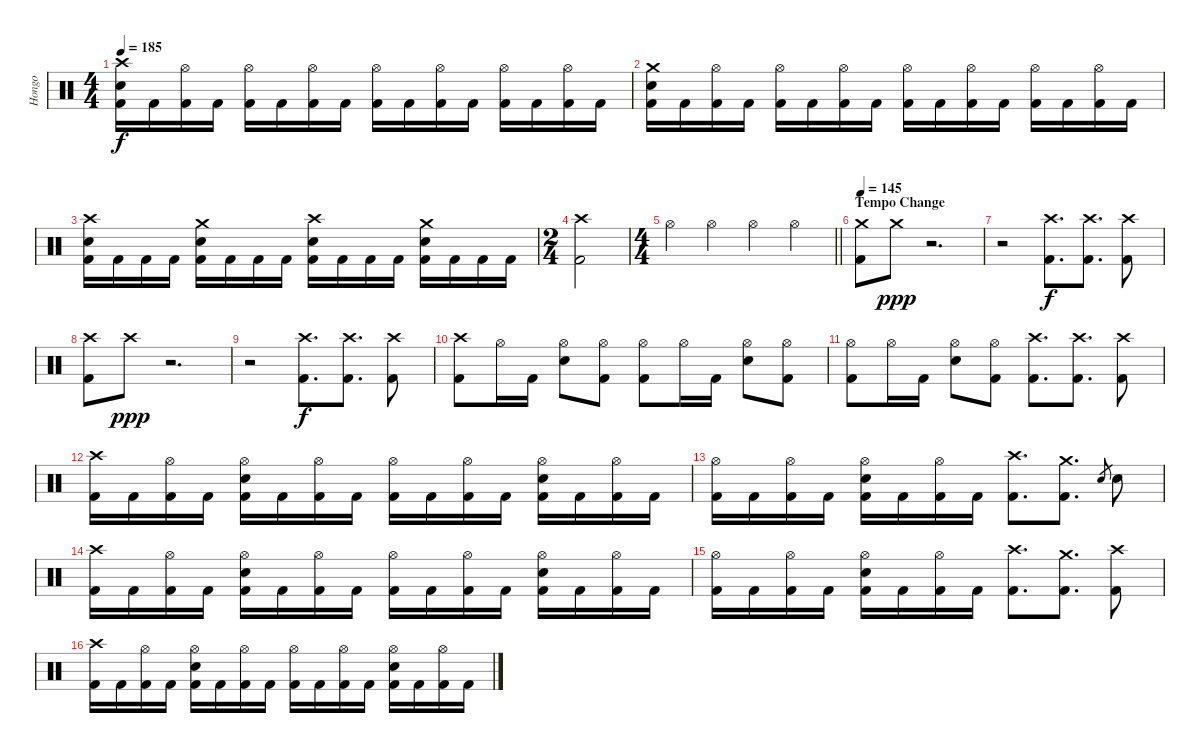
\track ("Hongo" "Hongo") {instrument percussion}
\staff {score}
\articulation defaults
\ts (4 4)
\tempo 185
\clef neutral
\ks c
("Crash high (hit)" "Electric Snare (hit)" "Kick (hit) 2").16{dy f} "Kick (hit) 2".16 ("Hi-Hat (open)" "Kick (hit) 2").16 "Kick (hit) 2".16 ("Hi-Hat (open)" "Kick (hit) 2").16 "Kick (hit) 2".16 ("Hi-Hat (open)" "Kick (hit) 2").16 "Kick (hit) 2".16 ("Hi-Hat (open)" "Kick (hit) 2").16 "Kick (hit) 2".16 ("Hi-Hat (open)" "Kick (hit) 2").16 "Kick (hit) 2".16 ("Hi-Hat (open)" "Kick (hit) 2").16 "Kick (hit) 2".16 ("Hi-Hat (open)" "Kick (hit) 2").16 "Kick (hit) 2".16 |
("Crash medium (hit)" "Electric Snare (hit)" "Kick (hit) 2").16 "Kick (hit) 2".16 ("Hi-Hat (open)" "Kick (hit) 2").16 "Kick (hit) 2".16 ("Hi-Hat (open)" "Kick (hit) 2").16 "Kick (hit) 2".16 ("Hi-Hat (open)" "Kick (hit) 2").16 "Kick (hit) 2".16 ("Hi-Hat (open)" "Kick (hit) 2").16 "Kick (hit) 2".16 ("Hi-Hat (open)" "Kick (hit) 2").16 "Kick (hit) 2".16 ("Hi-Hat (open)" "Kick (hit) 2").16 "Kick (hit) 2".16 ("Hi-Hat (open)" "Kick (hit) 2").16 "Kick (hit) 2".16 |
("Crash high (hit)" "Electric Snare (hit)" "Kick (hit) 2").16 "Kick (hit) 2".16 "Kick (hit) 2".16 "Kick (hit) 2".16 ("Crash medium (hit)" "Electric Snare (hit)" "Kick (hit) 2").16 "Kick (hit) 2".16 "Kick (hit) 2".16 "Kick (hit) 2".16 ("Crash high (hit)" "Electric Snare (hit)" "Kick (hit) 2").16 "Kick (hit) 2".16 "Kick (hit) 2".16 "Kick (hit) 2".16 ("Crash medium (hit)" "Electric Snare (hit)" "Kick (hit) 2").16 "Kick (hit) 2".16 "Kick (hit) 2".16 "Kick (hit) 2".16 |
\ts (2 4)
("Crash high (hit)" "Kick (hit) 2").2 |
\ts (4 4)
\barLineRight lightlight "Hi-Hat (open)".4 "Hi-Hat (open)".4 "Hi-Hat (open)".4 "Hi-Hat (open)".4
|
\section ("" "Tempo Change")
\tempo 145
("Crash medium (hit)" "Kick (hit) 2").8 "Crash medium (hit)".8{dy ppp} r.2{d} |
r.2 ("Crash high (hit)" "Kick (hit) 2").8{d dy f} ("Crash high (hit)" "Kick (hit) 2").8{d} ("Crash high (hit)" "Kick (hit) 2").8 |
("Crash high (hit)" "Kick (hit) 2").8 "Crash high (hit)".8{dy ppp} r.2{d} |
r.2 ("Crash high (hit)" "Kick (hit) 2").8{d dy f} ("Crash high (hit)" "Kick (hit) 2").8{d} ("Crash high (hit)" "Kick (hit) 2").8 |
("Crash high (hit)" "Kick (hit) 2").8 "Hi-Hat (open)".16 "Kick (hit) 2".16 ("Hi-Hat (open)" "Electric Snare (hit)").8 ("Hi-Hat (open)" "Kick (hit) 2").8 ("Hi-Hat (open)" "Kick (hit) 2").8 "Hi-Hat (open)".16 "Kick (hit) 2".16 ("Hi-Hat (open)" "Electric Snare (hit)").8 ("Hi-Hat (open)" "Kick (hit) 2").8 |
("Hi-Hat (open)" "Kick (hit) 2").8 "Hi-Hat (open)".16 "Kick (hit) 2".16 ("Hi-Hat (open)" "Electric Snare (hit)").8 ("Hi-Hat (open)" "Kick (hit) 2").8 ("Crash high (hit)" "Kick (hit) 2").8{d} ("Crash high (hit)" "Kick (hit) 2").8{d} ("Crash high (hit)" "Kick (hit) 2").8 |
("Crash high (hit)" "Kick (hit) 2").16 "Kick (hit) 2".16 ("Hi-Hat (open)" "Kick (hit) 2").16 "Kick (hit) 2".16 ("Hi-Hat (open)" "Electric Snare (hit)" "Kick (hit) 2").16 "Kick (hit) 2".16 ("Hi-Hat (open)" "Kick (hit) 2").16 "Kick (hit) 2".16 ("Hi-Hat (open)" "Kick (hit) 2").16 "Kick (hit) 2".16 ("Hi-Hat (open)" "Kick (hit) 2").16 "Kick (hit) 2".16 ("Hi-Hat (open)" "Electric Snare (hit)" "Kick (hit) 2").16 "Kick (hit) 2".16 ("Hi-Hat (open)" "Kick (hit) 2").16 "Kick (hit) 2".16 |
("Hi-Hat (open)" "Kick (hit) 2").16 "Kick (hit) 2".16 ("Hi-Hat (open)" "Kick (hit) 2").16 "Kick (hit) 2".16 ("Hi-Hat (open)" "Electric Snare (hit)" "Kick (hit) 2").16 "Kick (hit) 2".16 ("Hi-Hat (open)" "Kick (hit) 2").16 "Kick (hit) 2".16 ("Crash high (hit)" "Kick (hit) 2").8{d} ("Crash medium (hit)" "Kick (hit) 2").8{d} "Electric Snare (hit)".8{gr} "Electric Snare (hit)".8 |
("Crash high (hit)" "Kick (hit) 2").16 "Kick (hit) 2".16 ("Hi-Hat (open)" "Kick (hit) 2").16 "Kick (hit) 2".16 ("Hi-Hat (open)" "Electric Snare (hit)" "Kick (hit) 2").16 "Kick (hit) 2".16 ("Hi-Hat (open)" "Kick (hit) 2").16 "Kick (hit) 2".16 ("Hi-Hat (open)" "Kick (hit) 2").16 "Kick (hit) 2".16 ("Hi-Hat (open)" "Kick (hit) 2").16 "Kick (hit) 2".16 ("Hi-Hat (open)" "Electric Snare (hit)" "Kick (hit) 2").16 "Kick (hit) 2".16 ("Hi-Hat (open)" "Kick (hit) 2").16 "Kick (hit) 2".16 |
("Hi-Hat (open)" "Kick (hit) 2").16 "Kick (hit) 2".16 ("Hi-Hat (open)" "Kick (hit) 2").16 "Kick (hit) 2".16 ("Hi-Hat (open)" "Electric Snare (hit)" "Kick (hit) 2").16 "Kick (hit) 2".16 ("Hi-Hat (open)" "Kick (hit) 2").16 "Kick (hit) 2".16 ("Crash high (hit)" "Kick (hit) 2").8{d} ("Crash medium (hit)" "Kick (hit) 2").8{d} ("Crash high (hit)" "Kick (hit) 2").8 |
("Crash high (hit)" "Kick (hit) 2").16 "Kick (hit) 2".16 ("Hi-Hat (open)" "Kick (hit) 2").16 "Kick (hit) 2".16 ("Hi-Hat (open)" "Electric Snare (hit)" "Kick (hit) 2").16 "Kick (hit) 2".16 ("Hi-Hat (open)" "Kick (hit) 2").16 "Kick (hit) 2".16 ("Hi-Hat (open)" "Kick (hit) 2").16 "Kick (hit) 2".16 ("Hi-Hat (open)" "Kick (hit) 2").16 "Kick (hit) 2".16 ("Hi-Hat (open)" "Electric Snare (hit)" "Kick (hit) 2").16 "Kick (hit) 2".16 ("Hi-Hat (open)" "Kick (hit) 2").16 "Kick (hit) 2".16
